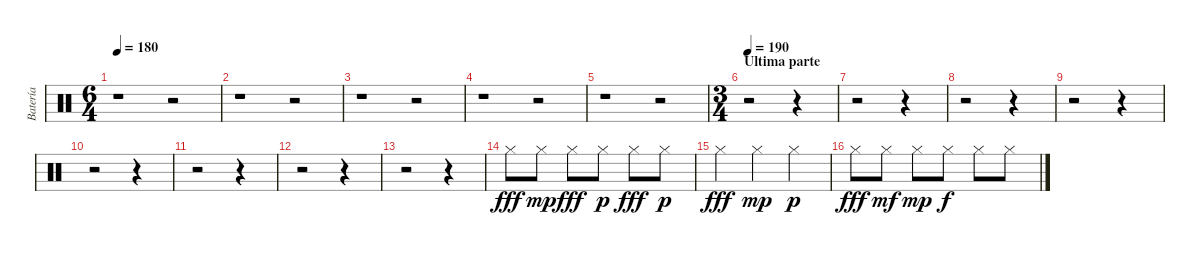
\track ("Batería" "Batería") {instrument percussion}
\staff {score}
\articulation defaults
\ts (6 4)
\tempo 180
\clef neutral
\ks c
r.1{dy f} r.2 |
r.1 r.2 |
r.1 r.2 |
r.1 r.2 |
r.1 r.2 |
\ts (3 4)
\section ("" "Ultima parte")
\tempo 190
r.2 r.4 |
r.2 r.4 |
r.2 r.4 |
r.2 r.4 |
r.2 r.4 |
r.2 r.4 |
r.2 r.4 |
r.2 r.4 |
"Hi-Hat (closed)".8{dy fff} "Hi-Hat (closed)".8{dy mp} "Hi-Hat (closed)".8{dy fff} "Hi-Hat (closed)".8{dy p} "Hi-Hat (closed)".8{dy fff} "Hi-Hat (closed)".8{dy p} |
"Hi-Hat (closed)".4{dy fff} "Hi-Hat (closed)".4{dy mp} "Hi-Hat (closed)".4{dy p} |
"Hi-Hat (closed)".8{dy fff} "Hi-Hat (closed)".8{dy mf} "Hi-Hat (closed)".8{dy mp} "Hi-Hat (closed)".8{dy f} "Hi-Hat (closed)".8 "Hi-Hat (closed)".8
